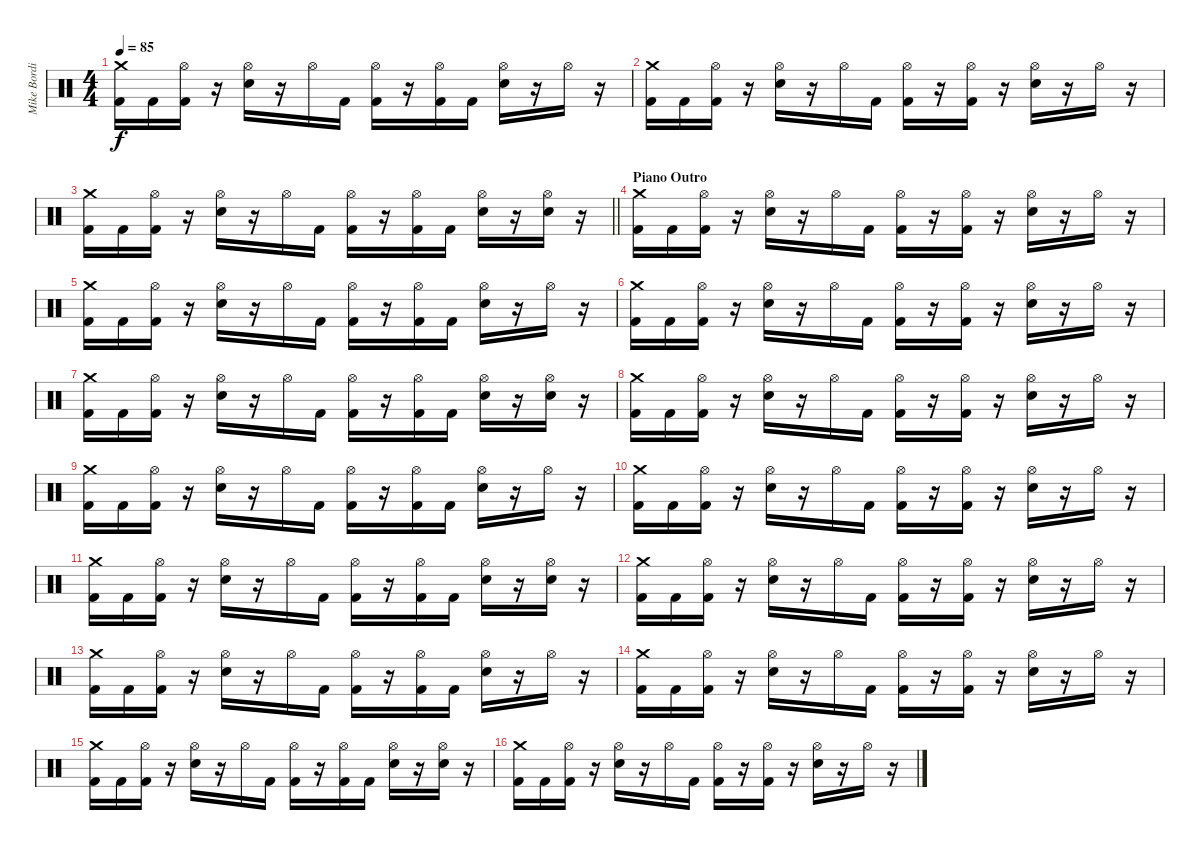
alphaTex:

\track ("Mike Bordin (Drums)" "Mike Bordi") {instrument percussion}
\staff {score}
\articulation defaults
\ts (4 4)
\tempo 85
\clef neutral
\ks c
("Crash medium (hit)" "Kick (hit) 2").16{dy f} "Kick (hit) 2".16 ("Hi-Hat (open)" "Kick (hit) 2").16 r.16 ("Hi-Hat (open)" "Snare (hit) 2").16 r.16 "Hi-Hat (open)".16 "Kick (hit) 2".16 ("Hi-Hat (open)" "Kick (hit) 2").16 r.16 ("Hi-Hat (open)" "Kick (hit) 2").16 "Kick (hit) 2".16 ("Hi-Hat (open)" "Snare (hit) 2").16 r.16 "Hi-Hat (open)".16 r.16 |
("Crash medium (hit)" "Kick (hit) 2").16 "Kick (hit) 2".16 ("Hi-Hat (open)" "Kick (hit) 2").16 r.16 ("Hi-Hat (open)" "Snare (hit) 2").16 r.16 "Hi-Hat (open)".16 "Kick (hit) 2".16 ("Hi-Hat (open)" "Kick (hit) 2").16 r.16 ("Hi-Hat (open)" "Kick (hit) 2").16 r.16 ("Hi-Hat (open)" "Snare (hit) 2").16 r.16 "Hi-Hat (open)".16 r.16 |
\barLineRight lightlight
("Crash medium (hit)" "Kick (hit) 2").16 "Kick (hit) 2".16 ("Hi-Hat (open)" "Kick (hit) 2").16 r.16 ("Hi-Hat (open)" "Snare (hit) 2").16 r.16 "Hi-Hat (open)".16 "Kick (hit) 2".16 ("Hi-Hat (open)" "Kick (hit) 2").16 r.16 ("Hi-Hat (open)" "Kick (hit) 2").16 "Kick (hit) 2".16 ("Hi-Hat (open)" "Snare (hit) 2").16 r.16 ("Hi-Hat (open)" "Snare (hit) 2").16 r.16 |
\section ("" "Piano Outro")
("Crash medium (hit)" "Kick (hit) 2").16 "Kick (hit) 2".16 ("Hi-Hat (open)" "Kick (hit) 2").16 r.16 ("Hi-Hat (open)" "Snare (hit) 2").16 r.16 "Hi-Hat (open)".16 "Kick (hit) 2".16 ("Hi-Hat (open)" "Kick (hit) 2").16 r.16 ("Hi-Hat (open)" "Kick (hit) 2").16 r.16 ("Hi-Hat (open)" "Snare (hit) 2").16 r.16 "Hi-Hat (open)".16 r.16 |
("Crash medium (hit)" "Kick (hit) 2").16 "Kick (hit) 2".16 ("Hi-Hat (open)" "Kick (hit) 2").16 r.16 ("Hi-Hat (open)" "Snare (hit) 2").16 r.16 "Hi-Hat (open)".16 "Kick (hit) 2".16 ("Hi-Hat (open)" "Kick (hit) 2").16 r.16 ("Hi-Hat (open)" "Kick (hit) 2").16 "Kick (hit) 2".16 ("Hi-Hat (open)" "Snare (hit) 2").16 r.16 "Hi-Hat (open)".16 r.16 |
("Crash medium (hit)" "Kick (hit) 2").16 "Kick (hit) 2".16 ("Hi-Hat (open)" "Kick (hit) 2").16 r.16 ("Hi-Hat (open)" "Snare (hit) 2").16 r.16 "Hi-Hat (open)".16 "Kick (hit) 2".16 ("Hi-Hat (open)" "Kick (hit) 2").16 r.16 ("Hi-Hat (open)" "Kick (hit) 2").16 r.16 ("Hi-Hat (open)" "Snare (hit) 2").16 r.16 "Hi-Hat (open)".16 r.16 |
("Crash medium (hit)" "Kick (hit) 2").16 "Kick (hit) 2".16 ("Hi-Hat (open)" "Kick (hit) 2").16 r.16 ("Hi-Hat (open)" "Snare (hit) 2").16 r.16 "Hi-Hat (open)".16 "Kick (hit) 2".16 ("Hi-Hat (open)" "Kick (hit) 2").16 r.16 ("Hi-Hat (open)" "Kick (hit) 2").16 "Kick (hit) 2".16 ("Hi-Hat (open)" "Snare (hit) 2").16 r.16 ("Hi-Hat (open)" "Snare (hit) 2").16 r.16 |
("Crash medium (hit)" "Kick (hit) 2").16 "Kick (hit) 2".16 ("Hi-Hat (open)" "Kick (hit) 2").16 r.16 ("Hi-Hat (open)" "Snare (hit) 2").16 r.16 "Hi-Hat (open)".16 "Kick (hit) 2".16 ("Hi-Hat (open)" "Kick (hit) 2").16 r.16 ("Hi-Hat (open)" "Kick (hit) 2").16 r.16 ("Hi-Hat (open)" "Snare (hit) 2").16 r.16 "Hi-Hat (open)".16 r.16 |
("Crash medium (hit)" "Kick (hit) 2").16 "Kick (hit) 2".16 ("Hi-Hat (open)" "Kick (hit) 2").16 r.16 ("Hi-Hat (open)" "Snare (hit) 2").16 r.16 "Hi-Hat (open)".16 "Kick (hit) 2".16 ("Hi-Hat (open)" "Kick (hit) 2").16 r.16 ("Hi-Hat (open)" "Kick (hit) 2").16 "Kick (hit) 2".16 ("Hi-Hat (open)" "Snare (hit) 2").16 r.16 "Hi-Hat (open)".16 r.16 |
("Crash medium (hit)" "Kick (hit) 2").16 "Kick (hit) 2".16 ("Hi-Hat (open)" "Kick (hit) 2").16 r.16 ("Hi-Hat (open)" "Snare (hit) 2").16 r.16 "Hi-Hat (open)".16 "Kick (hit) 2".16 ("Hi-Hat (open)" "Kick (hit) 2").16 r.16 ("Hi-Hat (open)" "Kick (hit) 2").16 r.16 ("Hi-Hat (open)" "Snare (hit) 2").16 r.16 "Hi-Hat (open)".16 r.16 |
("Crash medium (hit)" "Kick (hit) 2").16 "Kick (hit) 2".16 ("Hi-Hat (open)" "Kick (hit) 2").16 r.16 ("Hi-Hat (open)" "Snare (hit) 2").16 r.16 "Hi-Hat (open)".16 "Kick (hit) 2".16 ("Hi-Hat (open)" "Kick (hit) 2").16 r.16 ("Hi-Hat (open)" "Kick (hit) 2").16 "Kick (hit) 2".16 ("Hi-Hat (open)" "Snare (hit) 2").16 r.16 ("Hi-Hat (open)" "Snare (hit) 2").16 r.16 |
("Crash medium (hit)" "Kick (hit) 2").16 "Kick (hit) 2".16 ("Hi-Hat (open)" "Kick (hit) 2").16 r.16 ("Hi-Hat (open)" "Snare (hit) 2").16 r.16 "Hi-Hat (open)".16 "Kick (hit) 2".16 ("Hi-Hat (open)" "Kick (hit) 2").16 r.16 ("Hi-Hat (open)" "Kick (hit) 2").16 r.16 ("Hi-Hat (open)" "Snare (hit) 2").16 r.16 "Hi-Hat (open)".16 r.16 |
("Crash medium (hit)" "Kick (hit) 2").16 "Kick (hit) 2".16 ("Hi-Hat (open)" "Kick (hit) 2").16 r.16 ("Hi-Hat (open)" "Snare (hit) 2").16 r.16 "Hi-Hat (open)".16 "Kick (hit) 2".16 ("Hi-Hat (open)" "Kick (hit) 2").16 r.16 ("Hi-Hat (open)" "Kick (hit) 2").16 "Kick (hit) 2".16 ("Hi-Hat (open)" "Snare (hit) 2").16 r.16 "Hi-Hat (open)".16 r.16 |
("Crash medium (hit)" "Kick (hit) 2").16 "Kick (hit) 2".16 ("Hi-Hat (open)" "Kick (hit) 2").16 r.16 ("Hi-Hat (open)" "Snare (hit) 2").16 r.16 "Hi-Hat (open)".16 "Kick (hit) 2".16 ("Hi-Hat (open)" "Kick (hit) 2").16 r.16 ("Hi-Hat (open)" "Kick (hit) 2").16 r.16 ("Hi-Hat (open)" "Snare (hit) 2").16 r.16 "Hi-Hat (open)".16 r.16 |
("Crash medium (hit)" "Kick (hit) 2").16 "Kick (hit) 2".16 ("Hi-Hat (open)" "Kick (hit) 2").16 r.16 ("Hi-Hat (open)" "Snare (hit) 2").16 r.16 "Hi-Hat (open)".16 "Kick (hit) 2".16 ("Hi-Hat (open)" "Kick (hit) 2").16 r.16 ("Hi-Hat (open)" "Kick (hit) 2").16 "Kick (hit) 2".16 ("Hi-Hat (open)" "Snare (hit) 2").16 r.16 ("Hi-Hat (open)" "Snare (hit) 2").16 r.16 |
("Crash medium (hit)" "Kick (hit) 2").16 "Kick (hit) 2".16 ("Hi-Hat (open)" "Kick (hit) 2").16 r.16 ("Hi-Hat (open)" "Snare (hit) 2").16 r.16 "Hi-Hat (open)".16 "Kick (hit) 2".16 ("Hi-Hat (open)" "Kick (hit) 2").16 r.16 ("Hi-Hat (open)" "Kick (hit) 2").16 r.16 ("Hi-Hat (open)" "Snare (hit) 2").16 r.16 "Hi-Hat (open)".16 r.16
